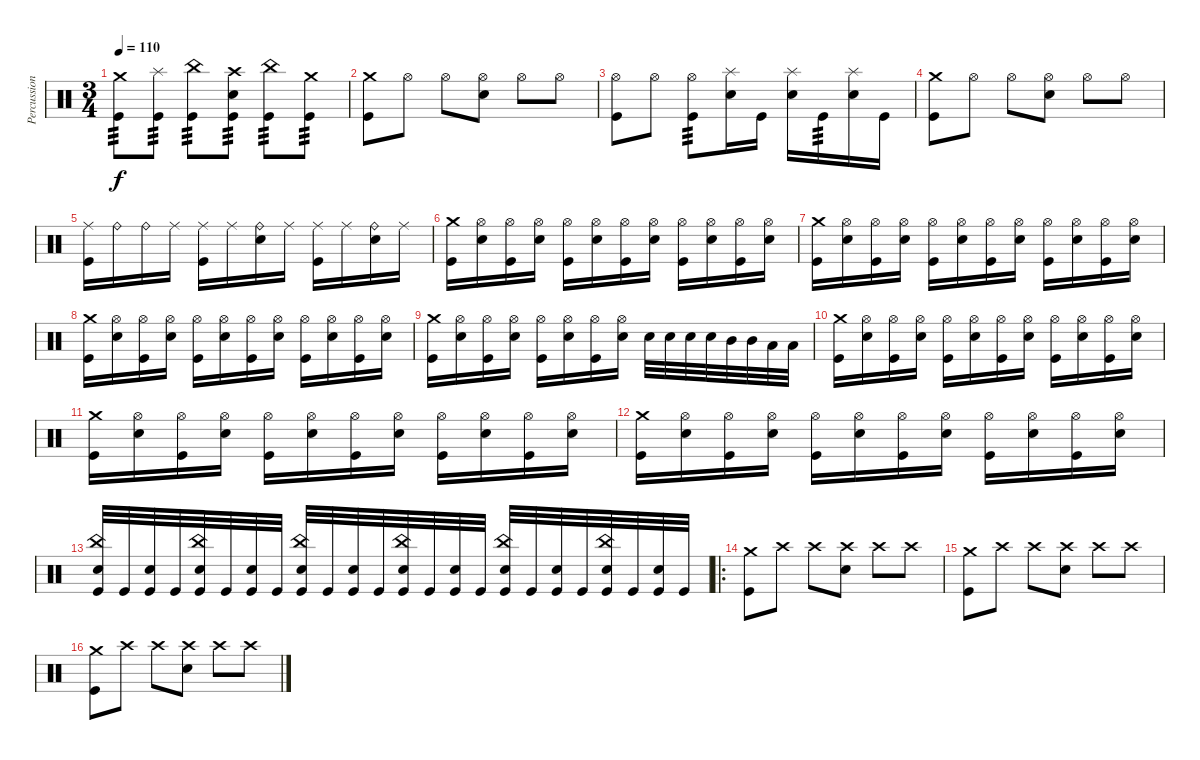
\track ("Percussion" "Percussion") {instrument percussion}
\staff {score}
\articulation defaults
\ts (3 4)
\tempo 110
\clef neutral
\ks c
("Crash medium (hit)" "Kick (hit)").8{tp 3 dy f} ("Splash (hit)" "Kick (hit)").8{tp 3} ("China (hit)" "Kick (hit)").8{tp 3} ("Electric Snare (hit)" "Crash high (hit)" "Kick (hit)").8{tp 3} ("China (hit)" "Kick (hit)").8{tp 3} ("Crash medium (hit)" "Kick (hit)").8{tp 3} |
("Crash medium (hit)" "Kick (hit)").8 "Hi-Hat (open)".8 "Hi-Hat (open)".8 ("Hi-Hat (open)" "Electric Snare (hit)").8 "Hi-Hat (open)".8 "Hi-Hat (open)".8 |
("Hi-Hat (open)" "Kick (hit)").8 "Hi-Hat (open)".8 ("Hi-Hat (open)" "Kick (hit)").8{tp 3} ("Splash (hit)" "Electric Snare (hit)").16 "Kick (hit)".16 ("Splash (hit)" "Electric Snare (hit)").16 "Kick (hit)".16{tp 3} ("Splash (hit)" "Electric Snare (hit)").16 "Kick (hit)".16 |
("Crash medium (hit)" "Kick (hit)").8 "Hi-Hat (open)".8 "Hi-Hat (open)".8 ("Hi-Hat (open)" "Electric Snare (hit)").8 "Hi-Hat (open)".8 "Hi-Hat (open)".8 |
("Ride (middle)" "Kick (hit)").16 "Ride (bell)".16 "Ride (bell)".16 "Ride (middle)".16 ("Ride (middle)" "Kick (hit)").16 "Ride (middle)".16 ("Ride (bell)" "Electric Snare (hit)").16 "Ride (middle)".16 ("Ride (middle)" "Kick (hit)").16 "Ride (middle)".16 ("Ride (bell)" "Electric Snare (hit)").16 "Ride (middle)".16 |
("Crash medium (hit)" "Kick (hit)").16 ("Hi-Hat (open)" "Electric Snare (hit)").16 ("Hi-Hat (open)" "Kick (hit)").16 ("Hi-Hat (open)" "Electric Snare (hit)").16 ("Hi-Hat (open)" "Kick (hit)").16 ("Hi-Hat (open)" "Electric Snare (hit)").16 ("Hi-Hat (open)" "Kick (hit)").16 ("Hi-Hat (open)" "Electric Snare (hit)").16 ("Hi-Hat (open)" "Kick (hit)").16 ("Hi-Hat (open)" "Electric Snare (hit)").16 ("Hi-Hat (open)" "Kick (hit)").16 ("Hi-Hat (open)" "Electric Snare (hit)").16 |
("Crash medium (hit)" "Kick (hit)").16 ("Hi-Hat (open)" "Electric Snare (hit)").16 ("Hi-Hat (open)" "Kick (hit)").16 ("Hi-Hat (open)" "Electric Snare (hit)").16 ("Hi-Hat (open)" "Kick (hit)").16 ("Hi-Hat (open)" "Electric Snare (hit)").16 ("Hi-Hat (open)" "Kick (hit)").16 ("Hi-Hat (open)" "Electric Snare (hit)").16 ("Hi-Hat (open)" "Kick (hit)").16 ("Hi-Hat (open)" "Electric Snare (hit)").16 ("Hi-Hat (open)" "Kick (hit)").16 ("Hi-Hat (open)" "Electric Snare (hit)").16 |
("Crash medium (hit)" "Kick (hit)").16 ("Hi-Hat (open)" "Electric Snare (hit)").16 ("Hi-Hat (open)" "Kick (hit)").16 ("Hi-Hat (open)" "Electric Snare (hit)").16 ("Hi-Hat (open)" "Kick (hit)").16 ("Hi-Hat (open)" "Electric Snare (hit)").16 ("Hi-Hat (open)" "Kick (hit)").16 ("Hi-Hat (open)" "Electric Snare (hit)").16 ("Hi-Hat (open)" "Kick (hit)").16 ("Hi-Hat (open)" "Electric Snare (hit)").16 ("Hi-Hat (open)" "Kick (hit)").16 ("Hi-Hat (open)" "Electric Snare (hit)").16 |
("Crash medium (hit)" "Kick (hit)").16 ("Hi-Hat (open)" "Electric Snare (hit)").16 ("Hi-Hat (open)" "Kick (hit)").16 ("Hi-Hat (open)" "Electric Snare (hit)").16 ("Hi-Hat (open)" "Kick (hit)").16 ("Hi-Hat (open)" "Electric Snare (hit)").16 ("Hi-Hat (open)" "Kick (hit)").16 ("Hi-Hat (open)" "Electric Snare (hit)").16 "Electric Snare (hit)".32 "Electric Snare (hit)".32 "Electric Snare (hit)".32 "Electric Snare (hit)".32 "Mid Tom (hit)".32 "Mid Tom (hit)".32 "Low Tom (hit)".32 "Low Tom (hit)".32 |
("Crash medium (hit)" "Kick (hit)").16 ("Hi-Hat (open)" "Electric Snare (hit)").16 ("Hi-Hat (open)" "Kick (hit)").16 ("Hi-Hat (open)" "Electric Snare (hit)").16 ("Hi-Hat (open)" "Kick (hit)").16 ("Hi-Hat (open)" "Electric Snare (hit)").16 ("Hi-Hat (open)" "Kick (hit)").16 ("Hi-Hat (open)" "Electric Snare (hit)").16 ("Hi-Hat (open)" "Kick (hit)").16 ("Hi-Hat (open)" "Electric Snare (hit)").16 ("Hi-Hat (open)" "Kick (hit)").16 ("Hi-Hat (open)" "Electric Snare (hit)").16 |
("Crash medium (hit)" "Kick (hit)").16 ("Hi-Hat (open)" "Electric Snare (hit)").16 ("Hi-Hat (open)" "Kick (hit)").16 ("Hi-Hat (open)" "Electric Snare (hit)").16 ("Hi-Hat (open)" "Kick (hit)").16 ("Hi-Hat (open)" "Electric Snare (hit)").16 ("Hi-Hat (open)" "Kick (hit)").16 ("Hi-Hat (open)" "Electric Snare (hit)").16 ("Hi-Hat (open)" "Kick (hit)").16 ("Hi-Hat (open)" "Electric Snare (hit)").16 ("Hi-Hat (open)" "Kick (hit)").16 ("Hi-Hat (open)" "Electric Snare (hit)").16 |
("Crash medium (hit)" "Kick (hit)").16 ("Hi-Hat (open)" "Electric Snare (hit)").16 ("Hi-Hat (open)" "Kick (hit)").16 ("Hi-Hat (open)" "Electric Snare (hit)").16 ("Hi-Hat (open)" "Kick (hit)").16 ("Hi-Hat (open)" "Electric Snare (hit)").16 ("Hi-Hat (open)" "Kick (hit)").16 ("Hi-Hat (open)" "Electric Snare (hit)").16 ("Hi-Hat (open)" "Kick (hit)").16 ("Hi-Hat (open)" "Electric Snare (hit)").16 ("Hi-Hat (open)" "Kick (hit)").16 ("Hi-Hat (open)" "Electric Snare (hit)").16 |
("China (hit)" "Electric Snare (hit)" "Kick (hit)").32 "Kick (hit)".32 ("Electric Snare (hit)" "Kick (hit)").32 "Kick (hit)".32 ("China (hit)" "Electric Snare (hit)" "Kick (hit)").32 "Kick (hit)".32 ("Electric Snare (hit)" "Kick (hit)").32 "Kick (hit)".32 ("China (hit)" "Electric Snare (hit)" "Kick (hit)").32 "Kick (hit)".32 ("Electric Snare (hit)" "Kick (hit)").32 "Kick (hit)".32 ("China (hit)" "Electric Snare (hit)" "Kick (hit)").32 "Kick (hit)".32 ("Electric Snare (hit)" "Kick (hit)").32 "Kick (hit)".32 ("China (hit)" "Electric Snare (hit)" "Kick (hit)").32 "Kick (hit)".32 ("Electric Snare (hit)" "Kick (hit)").32 "Kick (hit)".32 ("China (hit)" "Electric Snare (hit)" "Kick (hit)").32 "Kick (hit)".32 ("Electric Snare (hit)" "Kick (hit)").32 "Kick (hit)".32 |
\ro
("Crash medium (hit)" "Kick (hit)").8 "Crash high (hit)".8 "Crash high (hit)".8 ("Crash high (hit)" "Electric Snare (hit)").8 "Crash high (hit)".8 "Crash high (hit)".8 |
("Crash medium (hit)" "Kick (hit)").8 "Crash high (hit)".8 "Crash high (hit)".8 ("Crash high (hit)" "Electric Snare (hit)").8 "Crash high (hit)".8 "Crash high (hit)".8 |
("Crash medium (hit)" "Kick (hit)").8 "Crash high (hit)".8 "Crash high (hit)".8 ("Crash high (hit)" "Electric Snare (hit)").8 "Crash high (hit)".8 "Crash high (hit)".8
